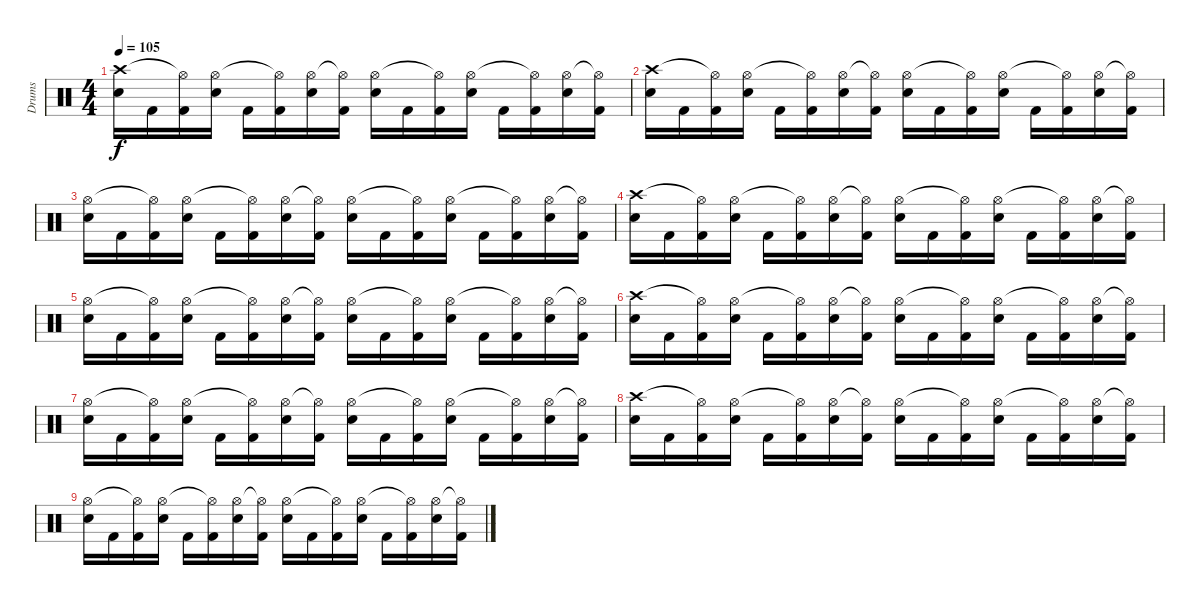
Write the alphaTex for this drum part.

\track ("Drums" "Drums") {instrument percussion}
\staff {score}
\articulation defaults
\ts (4 4)
\tempo 105
\clef neutral
\ks c
("Snare (hit) 2" "Crash high (hit)").16{dy f} "Kick (hit) 2".16 ("Kick (hit) 2" "Hi-Hat (open)"{t}).16 ("Snare (hit) 2" "Hi-Hat (open)").16 "Kick (hit) 2".16 ("Kick (hit) 2" "Hi-Hat (open)"{t}).16 ("Snare (hit) 2" "Hi-Hat (open)").16 ("Kick (hit) 2" "Hi-Hat (open)"{t}).16 ("Snare (hit) 2" "Hi-Hat (open)").16 "Kick (hit) 2".16 ("Kick (hit) 2" "Hi-Hat (open)"{t}).16 ("Snare (hit) 2" "Hi-Hat (open)").16 "Kick (hit) 2".16 ("Kick (hit) 2" "Hi-Hat (open)"{t}).16 ("Snare (hit) 2" "Hi-Hat (open)").16 ("Kick (hit) 2" "Hi-Hat (open)"{t}).16 |
("Snare (hit) 2" "Crash high (hit)").16 "Kick (hit) 2".16 ("Kick (hit) 2" "Hi-Hat (open)"{t}).16 ("Snare (hit) 2" "Hi-Hat (open)").16 "Kick (hit) 2".16 ("Kick (hit) 2" "Hi-Hat (open)"{t}).16 ("Snare (hit) 2" "Hi-Hat (open)").16 ("Kick (hit) 2" "Hi-Hat (open)"{t}).16 ("Snare (hit) 2" "Hi-Hat (open)").16 "Kick (hit) 2".16 ("Kick (hit) 2" "Hi-Hat (open)"{t}).16 ("Snare (hit) 2" "Hi-Hat (open)").16 "Kick (hit) 2".16 ("Kick (hit) 2" "Hi-Hat (open)"{t}).16 ("Snare (hit) 2" "Hi-Hat (open)").16 ("Kick (hit) 2" "Hi-Hat (open)"{t}).16 |
("Snare (hit) 2" "Hi-Hat (open)").16 "Kick (hit) 2".16 ("Kick (hit) 2" "Hi-Hat (open)"{t}).16 ("Snare (hit) 2" "Hi-Hat (open)").16 "Kick (hit) 2".16 ("Kick (hit) 2" "Hi-Hat (open)"{t}).16 ("Snare (hit) 2" "Hi-Hat (open)").16 ("Kick (hit) 2" "Hi-Hat (open)"{t}).16 ("Snare (hit) 2" "Hi-Hat (open)").16 "Kick (hit) 2".16 ("Kick (hit) 2" "Hi-Hat (open)"{t}).16 ("Snare (hit) 2" "Hi-Hat (open)").16 "Kick (hit) 2".16 ("Kick (hit) 2" "Hi-Hat (open)"{t}).16 ("Snare (hit) 2" "Hi-Hat (open)").16 ("Kick (hit) 2" "Hi-Hat (open)"{t}).16 |
("Snare (hit) 2" "Crash high (hit)").16 "Kick (hit) 2".16 ("Kick (hit) 2" "Hi-Hat (open)"{t}).16 ("Snare (hit) 2" "Hi-Hat (open)").16 "Kick (hit) 2".16 ("Kick (hit) 2" "Hi-Hat (open)"{t}).16 ("Snare (hit) 2" "Hi-Hat (open)").16 ("Kick (hit) 2" "Hi-Hat (open)"{t}).16 ("Snare (hit) 2" "Hi-Hat (open)").16 "Kick (hit) 2".16 ("Kick (hit) 2" "Hi-Hat (open)"{t}).16 ("Snare (hit) 2" "Hi-Hat (open)").16 "Kick (hit) 2".16 ("Kick (hit) 2" "Hi-Hat (open)"{t}).16 ("Snare (hit) 2" "Hi-Hat (open)").16 ("Kick (hit) 2" "Hi-Hat (open)"{t}).16 |
("Snare (hit) 2" "Hi-Hat (open)").16 "Kick (hit) 2".16 ("Kick (hit) 2" "Hi-Hat (open)"{t}).16 ("Snare (hit) 2" "Hi-Hat (open)").16 "Kick (hit) 2".16 ("Kick (hit) 2" "Hi-Hat (open)"{t}).16 ("Snare (hit) 2" "Hi-Hat (open)").16 ("Kick (hit) 2" "Hi-Hat (open)"{t}).16 ("Snare (hit) 2" "Hi-Hat (open)").16 "Kick (hit) 2".16 ("Kick (hit) 2" "Hi-Hat (open)"{t}).16 ("Snare (hit) 2" "Hi-Hat (open)").16 "Kick (hit) 2".16 ("Kick (hit) 2" "Hi-Hat (open)"{t}).16 ("Snare (hit) 2" "Hi-Hat (open)").16 ("Kick (hit) 2" "Hi-Hat (open)"{t}).16 |
("Snare (hit) 2" "Crash high (hit)").16 "Kick (hit) 2".16 ("Kick (hit) 2" "Hi-Hat (open)"{t}).16 ("Snare (hit) 2" "Hi-Hat (open)").16 "Kick (hit) 2".16 ("Kick (hit) 2" "Hi-Hat (open)"{t}).16 ("Snare (hit) 2" "Hi-Hat (open)").16 ("Kick (hit) 2" "Hi-Hat (open)"{t}).16 ("Snare (hit) 2" "Hi-Hat (open)").16 "Kick (hit) 2".16 ("Kick (hit) 2" "Hi-Hat (open)"{t}).16 ("Snare (hit) 2" "Hi-Hat (open)").16 "Kick (hit) 2".16 ("Kick (hit) 2" "Hi-Hat (open)"{t}).16 ("Snare (hit) 2" "Hi-Hat (open)").16 ("Kick (hit) 2" "Hi-Hat (open)"{t}).16 |
("Snare (hit) 2" "Hi-Hat (open)").16 "Kick (hit) 2".16 ("Kick (hit) 2" "Hi-Hat (open)"{t}).16 ("Snare (hit) 2" "Hi-Hat (open)").16 "Kick (hit) 2".16 ("Kick (hit) 2" "Hi-Hat (open)"{t}).16 ("Snare (hit) 2" "Hi-Hat (open)").16 ("Kick (hit) 2" "Hi-Hat (open)"{t}).16 ("Snare (hit) 2" "Hi-Hat (open)").16 "Kick (hit) 2".16 ("Kick (hit) 2" "Hi-Hat (open)"{t}).16 ("Snare (hit) 2" "Hi-Hat (open)").16 "Kick (hit) 2".16 ("Kick (hit) 2" "Hi-Hat (open)"{t}).16 ("Snare (hit) 2" "Hi-Hat (open)").16 ("Kick (hit) 2" "Hi-Hat (open)"{t}).16 |
("Snare (hit) 2" "Crash high (hit)").16 "Kick (hit) 2".16 ("Kick (hit) 2" "Hi-Hat (open)"{t}).16 ("Snare (hit) 2" "Hi-Hat (open)").16 "Kick (hit) 2".16 ("Kick (hit) 2" "Hi-Hat (open)"{t}).16 ("Snare (hit) 2" "Hi-Hat (open)").16 ("Kick (hit) 2" "Hi-Hat (open)"{t}).16 ("Snare (hit) 2" "Hi-Hat (open)").16 "Kick (hit) 2".16 ("Kick (hit) 2" "Hi-Hat (open)"{t}).16 ("Snare (hit) 2" "Hi-Hat (open)").16 "Kick (hit) 2".16 ("Kick (hit) 2" "Hi-Hat (open)"{t}).16 ("Snare (hit) 2" "Hi-Hat (open)").16 ("Kick (hit) 2" "Hi-Hat (open)"{t}).16 |
("Snare (hit) 2" "Hi-Hat (open)").16 "Kick (hit) 2".16 ("Kick (hit) 2" "Hi-Hat (open)"{t}).16 ("Snare (hit) 2" "Hi-Hat (open)").16 "Kick (hit) 2".16 ("Kick (hit) 2" "Hi-Hat (open)"{t}).16 ("Snare (hit) 2" "Hi-Hat (open)").16 ("Kick (hit) 2" "Hi-Hat (open)"{t}).16 ("Snare (hit) 2" "Hi-Hat (open)").16 "Kick (hit) 2".16 ("Kick (hit) 2" "Hi-Hat (open)"{t}).16 ("Snare (hit) 2" "Hi-Hat (open)").16 "Kick (hit) 2".16 ("Kick (hit) 2" "Hi-Hat (open)"{t}).16 ("Snare (hit) 2" "Hi-Hat (open)").16 ("Kick (hit) 2" "Hi-Hat (open)"{t}).16
